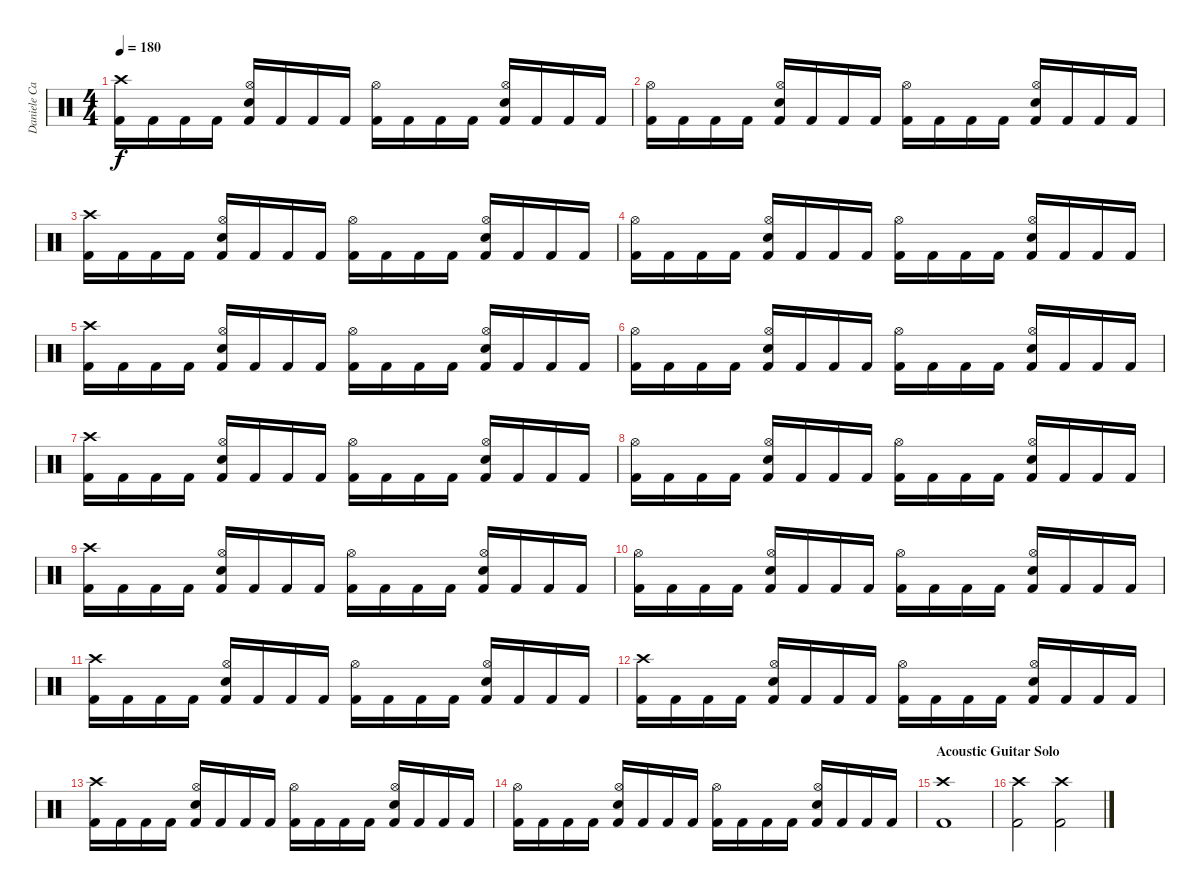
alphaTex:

\track ("Daniele Carbonera " "Daniele Ca") {instrument percussion}
\staff {score}
\articulation defaults
\ts (4 4)
\tempo 180
\clef neutral
\ks c
("Crash high (hit)" "Kick (hit) 2").16{dy f} "Kick (hit) 2".16 "Kick (hit) 2".16 "Kick (hit) 2".16 ("Hi-Hat (open)" "Electric Snare (hit)" "Kick (hit) 2").16 "Kick (hit) 2".16 "Kick (hit) 2".16 "Kick (hit) 2".16 ("Hi-Hat (open)" "Kick (hit) 2").16 "Kick (hit) 2".16 "Kick (hit) 2".16 "Kick (hit) 2".16 ("Hi-Hat (open)" "Electric Snare (hit)" "Kick (hit) 2").16 "Kick (hit) 2".16 "Kick (hit) 2".16 "Kick (hit) 2".16 |
("Hi-Hat (open)" "Kick (hit) 2").16 "Kick (hit) 2".16 "Kick (hit) 2".16 "Kick (hit) 2".16 ("Hi-Hat (open)" "Electric Snare (hit)" "Kick (hit) 2").16 "Kick (hit) 2".16 "Kick (hit) 2".16 "Kick (hit) 2".16 ("Hi-Hat (open)" "Kick (hit) 2").16 "Kick (hit) 2".16 "Kick (hit) 2".16 "Kick (hit) 2".16 ("Hi-Hat (open)" "Electric Snare (hit)" "Kick (hit) 2").16 "Kick (hit) 2".16 "Kick (hit) 2".16 "Kick (hit) 2".16 |
("Crash high (hit)" "Kick (hit) 2").16 "Kick (hit) 2".16 "Kick (hit) 2".16 "Kick (hit) 2".16 ("Hi-Hat (open)" "Electric Snare (hit)" "Kick (hit) 2").16 "Kick (hit) 2".16 "Kick (hit) 2".16 "Kick (hit) 2".16 ("Hi-Hat (open)" "Kick (hit) 2").16 "Kick (hit) 2".16 "Kick (hit) 2".16 "Kick (hit) 2".16 ("Hi-Hat (open)" "Electric Snare (hit)" "Kick (hit) 2").16 "Kick (hit) 2".16 "Kick (hit) 2".16 "Kick (hit) 2".16 |
("Hi-Hat (open)" "Kick (hit) 2").16 "Kick (hit) 2".16 "Kick (hit) 2".16 "Kick (hit) 2".16 ("Hi-Hat (open)" "Electric Snare (hit)" "Kick (hit) 2").16 "Kick (hit) 2".16 "Kick (hit) 2".16 "Kick (hit) 2".16 ("Hi-Hat (open)" "Kick (hit) 2").16 "Kick (hit) 2".16 "Kick (hit) 2".16 "Kick (hit) 2".16 ("Hi-Hat (open)" "Electric Snare (hit)" "Kick (hit) 2").16 "Kick (hit) 2".16 "Kick (hit) 2".16 "Kick (hit) 2".16 |
("Crash high (hit)" "Kick (hit) 2").16 "Kick (hit) 2".16 "Kick (hit) 2".16 "Kick (hit) 2".16 ("Hi-Hat (open)" "Electric Snare (hit)" "Kick (hit) 2").16 "Kick (hit) 2".16 "Kick (hit) 2".16 "Kick (hit) 2".16 ("Hi-Hat (open)" "Kick (hit) 2").16 "Kick (hit) 2".16 "Kick (hit) 2".16 "Kick (hit) 2".16 ("Hi-Hat (open)" "Electric Snare (hit)" "Kick (hit) 2").16 "Kick (hit) 2".16 "Kick (hit) 2".16 "Kick (hit) 2".16 |
("Hi-Hat (open)" "Kick (hit) 2").16 "Kick (hit) 2".16 "Kick (hit) 2".16 "Kick (hit) 2".16 ("Hi-Hat (open)" "Electric Snare (hit)" "Kick (hit) 2").16 "Kick (hit) 2".16 "Kick (hit) 2".16 "Kick (hit) 2".16 ("Hi-Hat (open)" "Kick (hit) 2").16 "Kick (hit) 2".16 "Kick (hit) 2".16 "Kick (hit) 2".16 ("Hi-Hat (open)" "Electric Snare (hit)" "Kick (hit) 2").16 "Kick (hit) 2".16 "Kick (hit) 2".16 "Kick (hit) 2".16 |
("Crash high (hit)" "Kick (hit) 2").16 "Kick (hit) 2".16 "Kick (hit) 2".16 "Kick (hit) 2".16 ("Hi-Hat (open)" "Electric Snare (hit)" "Kick (hit) 2").16 "Kick (hit) 2".16 "Kick (hit) 2".16 "Kick (hit) 2".16 ("Hi-Hat (open)" "Kick (hit) 2").16 "Kick (hit) 2".16 "Kick (hit) 2".16 "Kick (hit) 2".16 ("Hi-Hat (open)" "Electric Snare (hit)" "Kick (hit) 2").16 "Kick (hit) 2".16 "Kick (hit) 2".16 "Kick (hit) 2".16 |
("Hi-Hat (open)" "Kick (hit) 2").16 "Kick (hit) 2".16 "Kick (hit) 2".16 "Kick (hit) 2".16 ("Hi-Hat (open)" "Electric Snare (hit)" "Kick (hit) 2").16 "Kick (hit) 2".16 "Kick (hit) 2".16 "Kick (hit) 2".16 ("Hi-Hat (open)" "Kick (hit) 2").16 "Kick (hit) 2".16 "Kick (hit) 2".16 "Kick (hit) 2".16 ("Hi-Hat (open)" "Electric Snare (hit)" "Kick (hit) 2").16 "Kick (hit) 2".16 "Kick (hit) 2".16 "Kick (hit) 2".16 |
("Crash high (hit)" "Kick (hit) 2").16 "Kick (hit) 2".16 "Kick (hit) 2".16 "Kick (hit) 2".16 ("Hi-Hat (open)" "Electric Snare (hit)" "Kick (hit) 2").16 "Kick (hit) 2".16 "Kick (hit) 2".16 "Kick (hit) 2".16 ("Hi-Hat (open)" "Kick (hit) 2").16 "Kick (hit) 2".16 "Kick (hit) 2".16 "Kick (hit) 2".16 ("Hi-Hat (open)" "Electric Snare (hit)" "Kick (hit) 2").16 "Kick (hit) 2".16 "Kick (hit) 2".16 "Kick (hit) 2".16 |
("Hi-Hat (open)" "Kick (hit) 2").16 "Kick (hit) 2".16 "Kick (hit) 2".16 "Kick (hit) 2".16 ("Hi-Hat (open)" "Electric Snare (hit)" "Kick (hit) 2").16 "Kick (hit) 2".16 "Kick (hit) 2".16 "Kick (hit) 2".16 ("Hi-Hat (open)" "Kick (hit) 2").16 "Kick (hit) 2".16 "Kick (hit) 2".16 "Kick (hit) 2".16 ("Hi-Hat (open)" "Electric Snare (hit)" "Kick (hit) 2").16 "Kick (hit) 2".16 "Kick (hit) 2".16 "Kick (hit) 2".16 |
("Crash high (hit)" "Kick (hit) 2").16 "Kick (hit) 2".16 "Kick (hit) 2".16 "Kick (hit) 2".16 ("Hi-Hat (open)" "Electric Snare (hit)" "Kick (hit) 2").16 "Kick (hit) 2".16 "Kick (hit) 2".16 "Kick (hit) 2".16 ("Hi-Hat (open)" "Kick (hit) 2").16 "Kick (hit) 2".16 "Kick (hit) 2".16 "Kick (hit) 2".16 ("Hi-Hat (open)" "Electric Snare (hit)" "Kick (hit) 2").16 "Kick (hit) 2".16 "Kick (hit) 2".16 "Kick (hit) 2".16 |
("Crash high (hit)" "Kick (hit) 2").16 "Kick (hit) 2".16 "Kick (hit) 2".16 "Kick (hit) 2".16 ("Hi-Hat (open)" "Electric Snare (hit)" "Kick (hit) 2").16 "Kick (hit) 2".16 "Kick (hit) 2".16 "Kick (hit) 2".16 ("Hi-Hat (open)" "Kick (hit) 2").16 "Kick (hit) 2".16 "Kick (hit) 2".16 "Kick (hit) 2".16 ("Hi-Hat (open)" "Electric Snare (hit)" "Kick (hit) 2").16 "Kick (hit) 2".16 "Kick (hit) 2".16 "Kick (hit) 2".16 |
("Crash high (hit)" "Kick (hit) 2").16 "Kick (hit) 2".16 "Kick (hit) 2".16 "Kick (hit) 2".16 ("Hi-Hat (open)" "Electric Snare (hit)" "Kick (hit) 2").16 "Kick (hit) 2".16 "Kick (hit) 2".16 "Kick (hit) 2".16 ("Hi-Hat (open)" "Kick (hit) 2").16 "Kick (hit) 2".16 "Kick (hit) 2".16 "Kick (hit) 2".16 ("Hi-Hat (open)" "Electric Snare (hit)" "Kick (hit) 2").16 "Kick (hit) 2".16 "Kick (hit) 2".16 "Kick (hit) 2".16 |
("Hi-Hat (open)" "Kick (hit) 2").16 "Kick (hit) 2".16 "Kick (hit) 2".16 "Kick (hit) 2".16 ("Hi-Hat (open)" "Electric Snare (hit)" "Kick (hit) 2").16 "Kick (hit) 2".16 "Kick (hit) 2".16 "Kick (hit) 2".16 ("Hi-Hat (open)" "Kick (hit) 2").16 "Kick (hit) 2".16 "Kick (hit) 2".16 "Kick (hit) 2".16 ("Hi-Hat (open)" "Electric Snare (hit)" "Kick (hit) 2").16 "Kick (hit) 2".16 "Kick (hit) 2".16 "Kick (hit) 2".16 |
\section ("" "Acoustic Guitar Solo")
("Crash high (hit)" "Kick (hit) 2").1 |
("Crash high (hit)" "Kick (hit) 2").2 ("Crash high (hit)" "Kick (hit) 2").2
